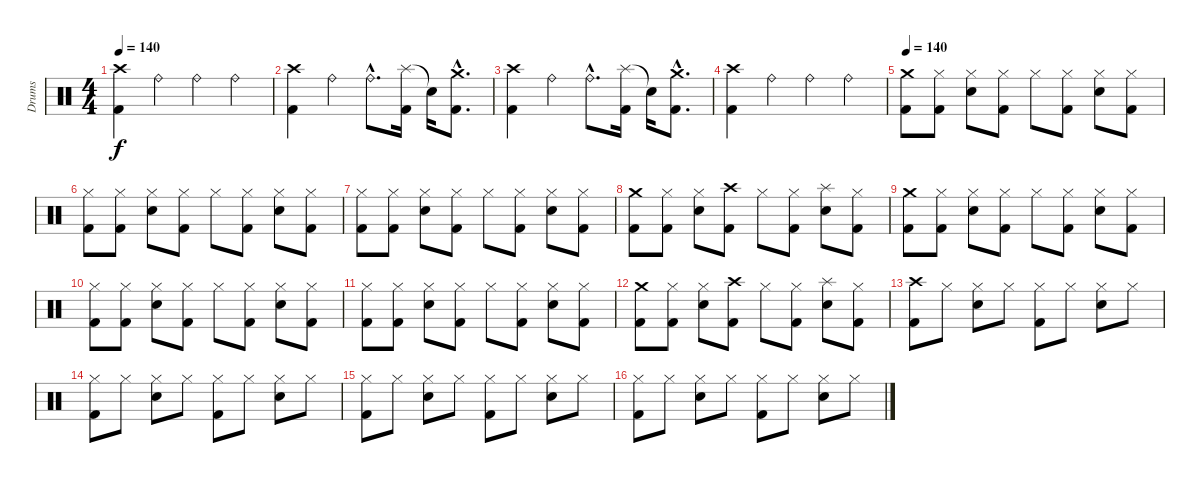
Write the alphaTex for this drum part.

\track ("Drums" "Drums") {instrument percussion}
\staff {score}
\articulation defaults
\ts (4 4)
\tempo 140
\clef neutral
\ks c
("Crash high (hit)" "Kick (hit) 2").4{dy f} "Ride (bell)".4 "Ride (bell)".4 "Ride (bell)".4 |
("Crash high (hit)" "Kick (hit) 2").4 "Ride (bell)".4 "Ride (bell)"{hac}.8{d} ("Splash (hit)" "Kick (hit) 2").16 "Snare (hit)"{t}.16 ("Crash medium (hit)"{hac} "Kick (hit) 2"{hac}).8{d} |
("Crash high (hit)" "Kick (hit) 2").4 "Ride (bell)".4 "Ride (bell)"{hac}.8{d} ("Splash (hit)" "Kick (hit) 2").16 "Snare (hit)"{t}.16 ("Crash medium (hit)"{hac} "Kick (hit) 2"{hac}).8{d} |
("Crash high (hit)" "Kick (hit) 2").4 "Ride (bell)".4 "Ride (bell)".4 "Ride (bell)".4 |
\tempo 140
("Crash medium (hit)" "Kick (hit) 2").8 ("Hi-Hat (closed)" "Kick (hit) 2").8 ("Hi-Hat (closed)" "Electric Snare (hit)").8 ("Hi-Hat (closed)" "Kick (hit) 2").8 "Hi-Hat (closed)".8 ("Hi-Hat (closed)" "Kick (hit) 2").8 ("Hi-Hat (closed)" "Electric Snare (hit)").8 ("Hi-Hat (closed)" "Kick (hit) 2").8 |
("Hi-Hat (closed)" "Kick (hit) 2").8 ("Hi-Hat (closed)" "Kick (hit) 2").8 ("Hi-Hat (closed)" "Electric Snare (hit)").8 ("Hi-Hat (closed)" "Kick (hit) 2").8 "Hi-Hat (closed)".8 ("Hi-Hat (closed)" "Kick (hit) 2").8 ("Hi-Hat (closed)" "Electric Snare (hit)").8 ("Hi-Hat (closed)" "Kick (hit) 2").8 |
("Hi-Hat (closed)" "Kick (hit) 2").8 ("Hi-Hat (closed)" "Kick (hit) 2").8 ("Hi-Hat (closed)" "Electric Snare (hit)").8 ("Hi-Hat (closed)" "Kick (hit) 2").8 "Hi-Hat (closed)".8 ("Hi-Hat (closed)" "Kick (hit) 2").8 ("Hi-Hat (closed)" "Electric Snare (hit)").8 ("Hi-Hat (closed)" "Kick (hit) 2").8 |
("Crash medium (hit)" "Kick (hit) 2").8 ("Hi-Hat (closed)" "Kick (hit) 2").8 ("Hi-Hat (closed)" "Electric Snare (hit)").8 ("Crash high (hit)" "Kick (hit) 2").8 "Hi-Hat (closed)".8 ("Hi-Hat (closed)" "Kick (hit) 2").8 ("Splash (hit)" "Electric Snare (hit)").8 ("Hi-Hat (closed)" "Kick (hit) 2").8 |
("Crash medium (hit)" "Kick (hit) 2").8 ("Hi-Hat (closed)" "Kick (hit) 2").8 ("Hi-Hat (closed)" "Electric Snare (hit)").8 ("Hi-Hat (closed)" "Kick (hit) 2").8 "Hi-Hat (closed)".8 ("Hi-Hat (closed)" "Kick (hit) 2").8 ("Hi-Hat (closed)" "Electric Snare (hit)").8 ("Hi-Hat (closed)" "Kick (hit) 2").8 |
("Hi-Hat (closed)" "Kick (hit) 2").8 ("Hi-Hat (closed)" "Kick (hit) 2").8 ("Hi-Hat (closed)" "Electric Snare (hit)").8 ("Hi-Hat (closed)" "Kick (hit) 2").8 "Hi-Hat (closed)".8 ("Hi-Hat (closed)" "Kick (hit) 2").8 ("Hi-Hat (closed)" "Electric Snare (hit)").8 ("Hi-Hat (closed)" "Kick (hit) 2").8 |
("Hi-Hat (closed)" "Kick (hit) 2").8 ("Hi-Hat (closed)" "Kick (hit) 2").8 ("Hi-Hat (closed)" "Electric Snare (hit)").8 ("Hi-Hat (closed)" "Kick (hit) 2").8 "Hi-Hat (closed)".8 ("Hi-Hat (closed)" "Kick (hit) 2").8 ("Hi-Hat (closed)" "Electric Snare (hit)").8 ("Hi-Hat (closed)" "Kick (hit) 2").8 |
("Crash medium (hit)" "Kick (hit) 2").8 ("Hi-Hat (closed)" "Kick (hit) 2").8 ("Hi-Hat (closed)" "Electric Snare (hit)").8 ("Crash high (hit)" "Kick (hit) 2").8 "Hi-Hat (closed)".8 ("Hi-Hat (closed)" "Kick (hit) 2").8 ("Splash (hit)" "Electric Snare (hit)").8 ("Hi-Hat (closed)" "Kick (hit) 2").8 |
("Crash high (hit)" "Kick (hit) 2").8 "Hi-Hat (closed)".8 ("Hi-Hat (closed)" "Electric Snare (hit)").8 "Hi-Hat (closed)".8 ("Hi-Hat (closed)" "Kick (hit) 2").8 "Hi-Hat (closed)".8 ("Hi-Hat (closed)" "Electric Snare (hit)").8 "Hi-Hat (closed)".8 |
("Hi-Hat (closed)" "Kick (hit) 2").8 "Hi-Hat (closed)".8 ("Hi-Hat (closed)" "Electric Snare (hit)").8 "Hi-Hat (closed)".8 ("Hi-Hat (closed)" "Kick (hit) 2").8 "Hi-Hat (closed)".8 ("Hi-Hat (closed)" "Electric Snare (hit)").8 "Hi-Hat (closed)".8 |
("Hi-Hat (closed)" "Kick (hit) 2").8 "Hi-Hat (closed)".8 ("Hi-Hat (closed)" "Electric Snare (hit)").8 "Hi-Hat (closed)".8 ("Hi-Hat (closed)" "Kick (hit) 2").8 "Hi-Hat (closed)".8 ("Hi-Hat (closed)" "Electric Snare (hit)").8 "Hi-Hat (closed)".8 |
("Hi-Hat (closed)" "Kick (hit) 2").8 "Hi-Hat (closed)".8 ("Hi-Hat (closed)" "Electric Snare (hit)").8 "Hi-Hat (closed)".8 ("Hi-Hat (closed)" "Kick (hit) 2").8 "Hi-Hat (closed)".8 ("Hi-Hat (closed)" "Electric Snare (hit)").8 "Hi-Hat (closed)".8
